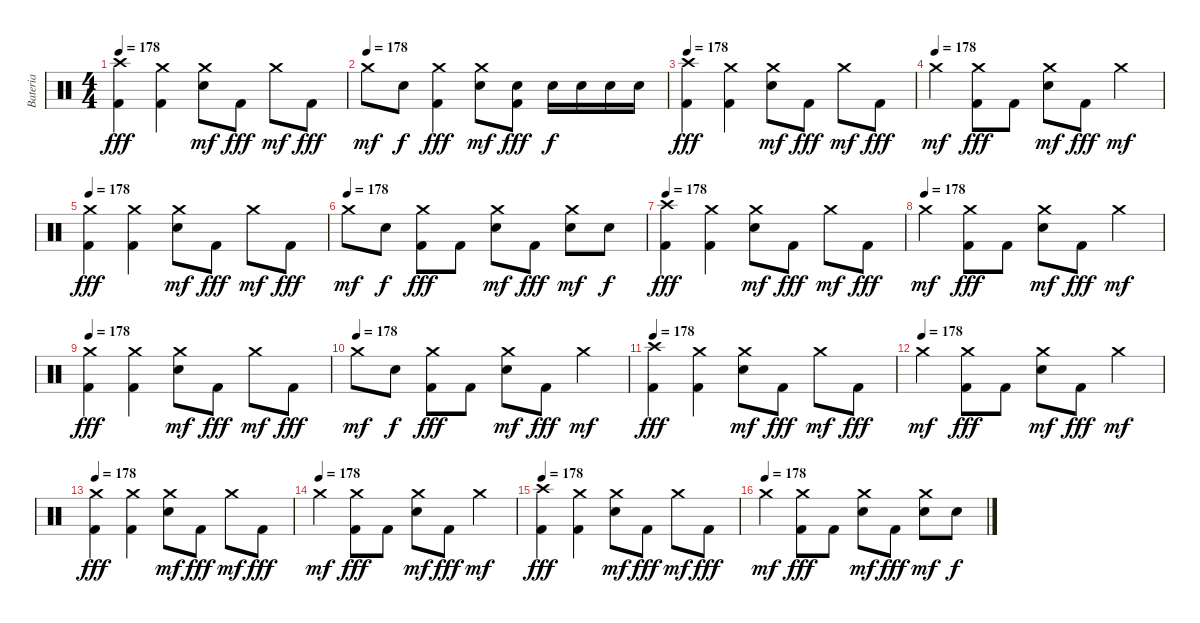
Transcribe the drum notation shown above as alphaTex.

\track ("Bateria" "Bateria") {instrument percussion}
\staff {score}
\articulation defaults
\ts (4 4)
\tempo 178
\clef neutral
\ks c
("Crash high (hit)" "Kick (hit) 2").4{dy fff} ("Crash medium (hit)" "Kick (hit) 2").4 ("Crash medium (hit)" "Electric Snare (hit)").8{dy mf} "Kick (hit) 2".8{dy fff} "Crash medium (hit)".8{dy mf} "Kick (hit) 2".8{dy fff} |
\tempo (178)
"Crash medium (hit)".8{dy mf} "Electric Snare (hit)".8{dy f} ("Crash medium (hit)" "Kick (hit) 2").4{dy fff} ("Crash medium (hit)" "Electric Snare (hit)").8{dy mf} ("Electric Snare (hit)" "Kick (hit) 2").8{dy fff} "Electric Snare (hit)".16{dy f} "Electric Snare (hit)".16 "Electric Snare (hit)".16 "Electric Snare (hit)".16 |
\tempo 178
("Crash high (hit)" "Kick (hit) 2").4{dy fff} ("Crash medium (hit)" "Kick (hit) 2").4 ("Crash medium (hit)" "Electric Snare (hit)").8{dy mf} "Kick (hit) 2".8{dy fff} "Crash medium (hit)".8{dy mf} "Kick (hit) 2".8{dy fff} |
\tempo (178)
"Crash medium (hit)".4{dy mf} ("Crash medium (hit)" "Kick (hit) 2").8{dy fff} "Kick (hit) 2".8 ("Crash medium (hit)" "Electric Snare (hit)").8{dy mf} "Kick (hit) 2".8{dy fff} "Crash medium (hit)".4{dy mf} |
\tempo 178
("Crash medium (hit)" "Kick (hit) 2").4{dy fff} ("Crash medium (hit)" "Kick (hit) 2").4 ("Crash medium (hit)" "Electric Snare (hit)").8{dy mf} "Kick (hit) 2".8{dy fff} "Crash medium (hit)".8{dy mf} "Kick (hit) 2".8{dy fff} |
\tempo (178)
"Crash medium (hit)".8{dy mf} "Electric Snare (hit)".8{dy f} ("Crash medium (hit)" "Kick (hit) 2").8{dy fff} "Kick (hit) 2".8 ("Crash medium (hit)" "Electric Snare (hit)").8{dy mf} "Kick (hit) 2".8{dy fff} ("Crash medium (hit)" "Electric Snare (hit)").8{dy mf} "Electric Snare (hit)".8{dy f} |
\tempo 178
("Crash high (hit)" "Kick (hit) 2").4{dy fff} ("Crash medium (hit)" "Kick (hit) 2").4 ("Crash medium (hit)" "Electric Snare (hit)").8{dy mf} "Kick (hit) 2".8{dy fff} "Crash medium (hit)".8{dy mf} "Kick (hit) 2".8{dy fff} |
\tempo (178)
"Crash medium (hit)".4{dy mf} ("Crash medium (hit)" "Kick (hit) 2").8{dy fff} "Kick (hit) 2".8 ("Crash medium (hit)" "Electric Snare (hit)").8{dy mf} "Kick (hit) 2".8{dy fff} "Crash medium (hit)".4{dy mf} |
\tempo 178
("Crash medium (hit)" "Kick (hit) 2").4{dy fff} ("Crash medium (hit)" "Kick (hit) 2").4 ("Crash medium (hit)" "Electric Snare (hit)").8{dy mf} "Kick (hit) 2".8{dy fff} "Crash medium (hit)".8{dy mf} "Kick (hit) 2".8{dy fff} |
\tempo (178)
"Crash medium (hit)".8{dy mf} "Electric Snare (hit)".8{dy f} ("Crash medium (hit)" "Kick (hit) 2").8{dy fff} "Kick (hit) 2".8 ("Crash medium (hit)" "Electric Snare (hit)").8{dy mf} "Kick (hit) 2".8{dy fff} "Crash medium (hit)".4{dy mf} |
\tempo 178
("Crash high (hit)" "Kick (hit) 2").4{dy fff} ("Crash medium (hit)" "Kick (hit) 2").4 ("Crash medium (hit)" "Electric Snare (hit)").8{dy mf} "Kick (hit) 2".8{dy fff} "Crash medium (hit)".8{dy mf} "Kick (hit) 2".8{dy fff} |
\tempo (178)
"Crash medium (hit)".4{dy mf} ("Crash medium (hit)" "Kick (hit) 2").8{dy fff} "Kick (hit) 2".8 ("Crash medium (hit)" "Electric Snare (hit)").8{dy mf} "Kick (hit) 2".8{dy fff} "Crash medium (hit)".4{dy mf} |
\tempo 178
("Crash medium (hit)" "Kick (hit) 2").4{dy fff} ("Crash medium (hit)" "Kick (hit) 2").4 ("Crash medium (hit)" "Electric Snare (hit)").8{dy mf} "Kick (hit) 2".8{dy fff} "Crash medium (hit)".8{dy mf} "Kick (hit) 2".8{dy fff} |
\tempo (178)
"Crash medium (hit)".4{dy mf} ("Crash medium (hit)" "Kick (hit) 2").8{dy fff} "Kick (hit) 2".8 ("Crash medium (hit)" "Electric Snare (hit)").8{dy mf} "Kick (hit) 2".8{dy fff} "Crash medium (hit)".4{dy mf} |
\tempo 178
("Crash high (hit)" "Kick (hit) 2").4{dy fff} ("Crash medium (hit)" "Kick (hit) 2").4 ("Crash medium (hit)" "Electric Snare (hit)").8{dy mf} "Kick (hit) 2".8{dy fff} "Crash medium (hit)".8{dy mf} "Kick (hit) 2".8{dy fff} |
\tempo (178)
"Crash medium (hit)".4{dy mf} ("Crash medium (hit)" "Kick (hit) 2").8{dy fff} "Kick (hit) 2".8 ("Crash medium (hit)" "Electric Snare (hit)").8{dy mf} "Kick (hit) 2".8{dy fff} ("Crash medium (hit)" "Electric Snare (hit)").8{dy mf} "Electric Snare (hit)".8{dy f}
